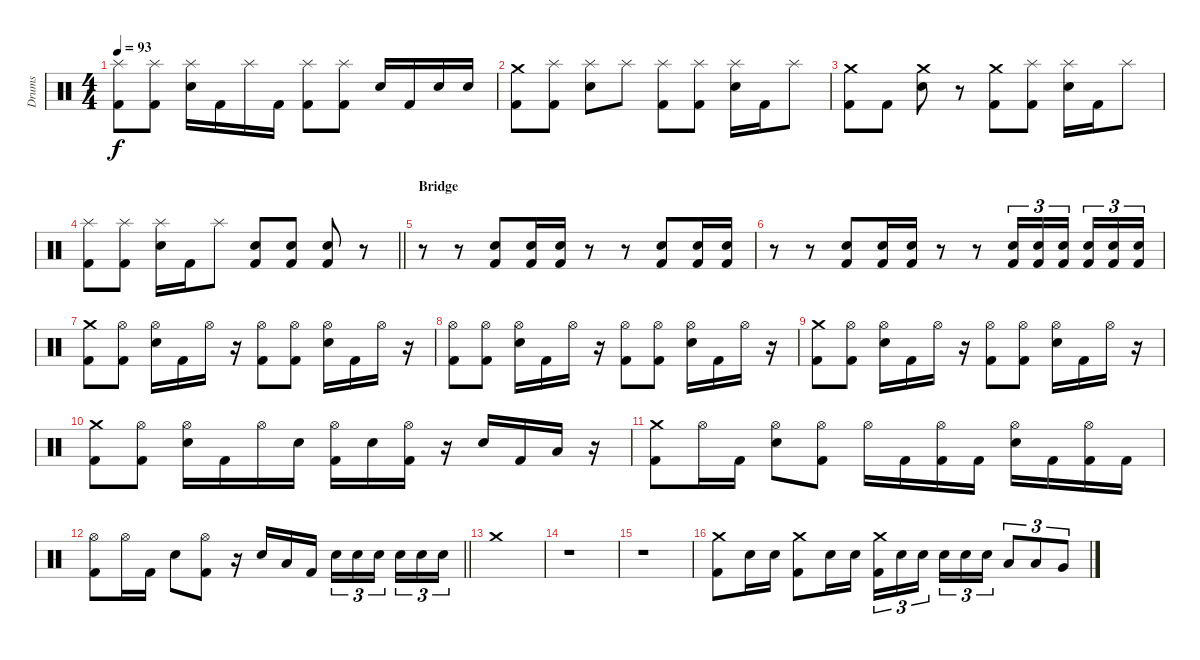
\track ("Drums" "Drums") {instrument percussion}
\staff {score}
\articulation defaults
\ts (4 4)
\tempo 93
\clef neutral
\ks c
("Splash (hit)" "Kick (hit) 2").8{dy f} ("Splash (hit)" "Kick (hit) 2").8 ("Splash (hit)" "Snare (hit) 2").16 "Kick (hit) 2".16 "Splash (hit)".16 "Kick (hit) 2".16 ("Splash (hit)" "Kick (hit) 2").8 ("Splash (hit)" "Kick (hit) 2").8 "Snare (hit) 2".16 "Kick (hit) 2".16 "Snare (hit) 2".16 "Snare (hit) 2".16 |
("Crash medium (hit)" "Kick (hit) 2").8 ("Splash (hit)" "Kick (hit) 2").8 ("Splash (hit)" "Snare (hit) 2").8 "Splash (hit)".8 ("Splash (hit)" "Kick (hit) 2").8 ("Splash (hit)" "Kick (hit) 2").8 ("Splash (hit)" "Snare (hit) 2").16 "Kick (hit) 2".16 "Splash (hit)".8 |
("Crash medium (hit)" "Kick (hit) 2").8 "Kick (hit) 2".8 ("Crash medium (hit)" "Snare (hit) 2").8 r.8 ("Crash medium (hit)" "Kick (hit) 2").8 ("Splash (hit)" "Kick (hit) 2").8 ("Splash (hit)" "Snare (hit) 2").16 "Kick (hit) 2".16 "Splash (hit)".8 |
\barLineRight lightlight
("Splash (hit)" "Kick (hit) 2").8 ("Splash (hit)" "Kick (hit) 2").8 ("Splash (hit)" "Snare (hit) 2").16 "Kick (hit) 2".16 "Splash (hit)".8 ("Snare (hit) 2" "Kick (hit) 2").8 ("Snare (hit) 2" "Kick (hit) 2").8 ("Snare (hit) 2" "Kick (hit) 2").8 r.8 |
\section ("" "Bridge")
r.8 r.8 ("Snare (hit) 2" "Kick (hit) 2").8 ("Snare (hit) 2" "Kick (hit) 2").16 ("Snare (hit) 2" "Kick (hit) 2").16 r.8 r.8 ("Snare (hit) 2" "Kick (hit) 2").8 ("Snare (hit) 2" "Kick (hit) 2").16 ("Snare (hit) 2" "Kick (hit) 2").16 |
r.8 r.8 ("Snare (hit) 2" "Kick (hit) 2").8 ("Snare (hit) 2" "Kick (hit) 2").16 ("Snare (hit) 2" "Kick (hit) 2").16 r.8 r.8 ("Snare (hit) 2" "Kick (hit) 2").16{tu (3 2)} ("Snare (hit) 2" "Kick (hit) 2").16{tu (3 2)} ("Snare (hit) 2" "Kick (hit) 2").16{tu (3 2) beam splitsecondary} ("Snare (hit) 2" "Kick (hit) 2").16{tu (3 2)} ("Snare (hit) 2" "Kick (hit) 2").16{tu (3 2)} ("Snare (hit) 2" "Kick (hit) 2").16{tu (3 2)} |
("Crash medium (hit)" "Kick (hit) 2").8 ("Hi-Hat (open)" "Kick (hit) 2").8 ("Hi-Hat (open)" "Snare (hit) 2").16 "Kick (hit) 2".16 "Hi-Hat (open)".16 r.16 ("Hi-Hat (open)" "Kick (hit) 2").8 ("Hi-Hat (open)" "Kick (hit) 2").8 ("Hi-Hat (open)" "Snare (hit) 2").16 "Kick (hit) 2".16 "Hi-Hat (open)".16 r.16 |
("Hi-Hat (open)" "Kick (hit) 2").8 ("Hi-Hat (open)" "Kick (hit) 2").8 ("Hi-Hat (open)" "Snare (hit) 2").16 "Kick (hit) 2".16 "Hi-Hat (open)".16 r.16 ("Hi-Hat (open)" "Kick (hit) 2").8 ("Hi-Hat (open)" "Kick (hit) 2").8 ("Hi-Hat (open)" "Snare (hit) 2").16 "Kick (hit) 2".16 "Hi-Hat (open)".16 r.16 |
("Crash medium (hit)" "Kick (hit) 2").8 ("Hi-Hat (open)" "Kick (hit) 2").8 ("Hi-Hat (open)" "Snare (hit) 2").16 "Kick (hit) 2".16 "Hi-Hat (open)".16 r.16 ("Hi-Hat (open)" "Kick (hit) 2").8 ("Hi-Hat (open)" "Kick (hit) 2").8 ("Hi-Hat (open)" "Snare (hit) 2").16 "Kick (hit) 2".16 "Hi-Hat (open)".16 r.16 |
("Crash medium (hit)" "Kick (hit) 2").8 ("Hi-Hat (open)" "Kick (hit) 2").8 ("Hi-Hat (open)" "Snare (hit) 2").16 "Kick (hit) 2".16 "Hi-Hat (open)".16 "Snare (hit) 2".16 ("Hi-Hat (open)" "Kick (hit) 2").16 "Snare (hit) 2".16 ("Hi-Hat (open)" "Kick (hit) 2").16 r.16 "Snare (hit) 2".16 "Kick (hit) 2".16 "Low Tom (hit)".16 r.16 |
("Crash medium (hit)" "Kick (hit) 2").8 "Hi-Hat (open)".16 "Kick (hit) 2".16 ("Hi-Hat (open)" "Snare (hit) 2").8 ("Hi-Hat (open)" "Kick (hit) 2").8 "Hi-Hat (open)".16 "Kick (hit) 2".16 ("Hi-Hat (open)" "Kick (hit) 2").16 "Kick (hit) 2".16 ("Hi-Hat (open)" "Snare (hit) 2").16 "Kick (hit) 2".16 ("Hi-Hat (open)" "Kick (hit) 2").16 "Kick (hit) 2".16 |
\barLineRight lightlight
("Hi-Hat (open)" "Kick (hit) 2").8 "Hi-Hat (open)".16 "Kick (hit) 2".16 "Snare (hit) 2".8 ("Hi-Hat (open)" "Kick (hit) 2").8 r.16 "Snare (hit) 2".16 "Low Tom (hit)".16 "Kick (hit) 2".16 "Snare (hit) 2".16{tu (3 2)} "Snare (hit) 2".16{tu (3 2)} "Snare (hit) 2".16{tu (3 2) beam splitsecondary} "Snare (hit) 2".16{tu (3 2)} "Snare (hit) 2".16{tu (3 2)} "Snare (hit) 2".16{tu (3 2)} |
"Crash medium (hit)".1 |
r.1 |
r.1 |
("Crash medium (hit)" "Kick (hit) 2").8 "Snare (hit) 2".16 "Snare (hit) 2".16 ("Crash medium (hit)" "Kick (hit) 2").8 "Snare (hit) 2".16 "Snare (hit) 2".16 ("Crash medium (hit)" "Kick (hit) 2").16{tu (3 2)} "Snare (hit) 2".16{tu (3 2)} "Snare (hit) 2".16{tu (3 2) beam splitsecondary} "Snare (hit) 2".16{tu (3 2)} "Snare (hit) 2".16{tu (3 2)} "Snare (hit) 2".16{tu (3 2)} "Low Floor Tom (hit)".8{tu (3 2)} "Low Floor Tom (hit)".8{tu (3 2)} "Very Low Tom (hit)".8{tu (3 2)}
